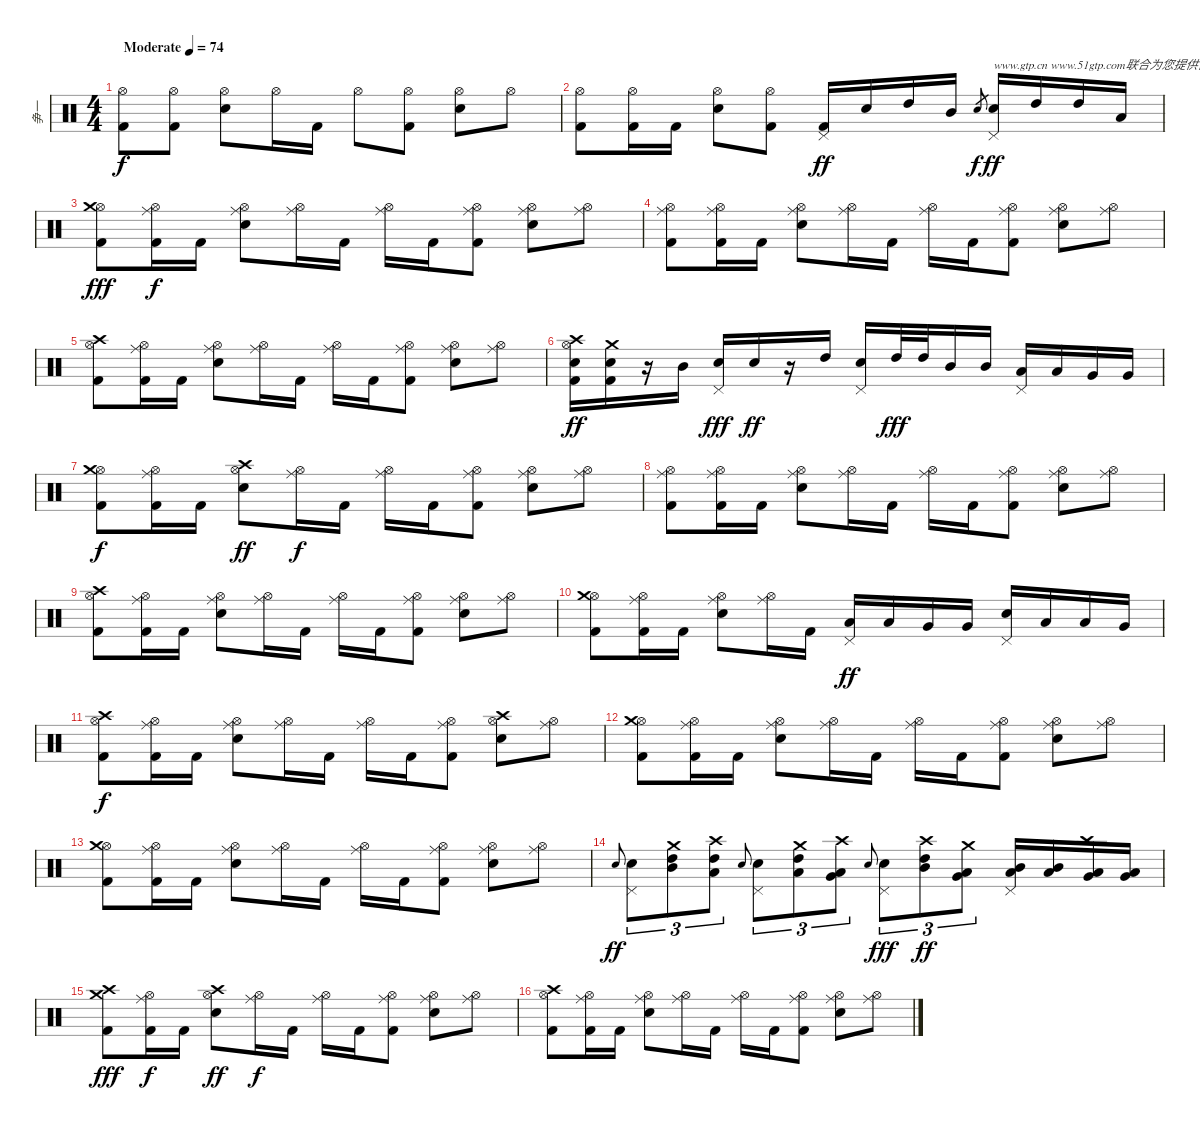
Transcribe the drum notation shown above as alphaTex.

\track ("争一" "争一") {instrument percussion}
\staff {score}
\articulation defaults
\ts (4 4)
\tempo (74 "Moderate")
\clef neutral
\ks c
("Hi-Hat (open)" "Kick (hit) 2").8{dy f} ("Hi-Hat (open)" "Kick (hit) 2").8 ("Hi-Hat (open)" "Snare (hit) 2").8 "Hi-Hat (open)".16 "Kick (hit) 2".16 "Hi-Hat (open)".8 ("Hi-Hat (open)" "Kick (hit) 2").8 ("Hi-Hat (open)" "Snare (hit) 2").8 "Hi-Hat (open)".8 |
("Hi-Hat (open)" "Kick (hit) 2").8 ("Hi-Hat (open)" "Kick (hit) 2").16 "Kick (hit) 2".16 ("Hi-Hat (open)" "Snare (hit) 2").8 ("Hi-Hat (open)" "Kick (hit) 2").8 ("Pedal Hi-Hat (hit)" "Kick (hit) 2").16{dy ff} "Snare (hit) 2".16 "High Tom (hit)".16 "Mid Tom (hit)".16 "Snare (hit) 2".8{gr dy f} ("Pedal Hi-Hat (hit)" "Snare (hit) 2").16{txt "www.gtp.cn www.51gtp.com联合为您提供优秀的GTP!" dy ff} "High Tom (hit)".16 "High Tom (hit)".16 "Low Tom (hit)".16 |
("Hi-Hat (open)" "Crash medium (hit)" "Kick (hit) 2").8{dy fff} ("Hi-Hat (open)" "Ride (middle)" "Kick (hit) 2").16{dy f} "Kick (hit) 2".16 ("Hi-Hat (open)" "Ride (middle)" "Snare (hit) 2").8 ("Hi-Hat (open)" "Ride (middle)").16 "Kick (hit) 2".16 ("Hi-Hat (open)" "Ride (middle)").16 "Kick (hit) 2".16 ("Hi-Hat (open)" "Ride (middle)" "Kick (hit) 2").8 ("Hi-Hat (open)" "Ride (middle)" "Snare (hit) 2").8 ("Hi-Hat (open)" "Ride (middle)").8 |
("Hi-Hat (open)" "Ride (middle)" "Kick (hit) 2").8 ("Hi-Hat (open)" "Ride (middle)" "Kick (hit) 2").16 "Kick (hit) 2".16 ("Hi-Hat (open)" "Ride (middle)" "Snare (hit) 2").8 ("Hi-Hat (open)" "Ride (middle)").16 "Kick (hit) 2".16 ("Hi-Hat (open)" "Ride (middle)").16 "Kick (hit) 2".16 ("Hi-Hat (open)" "Ride (middle)" "Kick (hit) 2").8 ("Hi-Hat (open)" "Ride (middle)" "Snare (hit) 2").8 ("Hi-Hat (open)" "Ride (middle)").8 |
("Hi-Hat (open)" "Crash high (hit)" "Kick (hit) 2").8 ("Hi-Hat (open)" "Ride (middle)" "Kick (hit) 2").16 "Kick (hit) 2".16 ("Hi-Hat (open)" "Ride (middle)" "Snare (hit) 2").8 ("Hi-Hat (open)" "Ride (middle)").16 "Kick (hit) 2".16 ("Hi-Hat (open)" "Ride (middle)").16 "Kick (hit) 2".16 ("Hi-Hat (open)" "Ride (middle)" "Kick (hit) 2").8 ("Hi-Hat (open)" "Ride (middle)" "Snare (hit) 2").8 ("Hi-Hat (open)" "Ride (middle)").8 |
("Hi-Hat (open)" "Crash high (hit)" "Snare (hit) 2" "Kick (hit) 2").16{dy ff} ("Crash medium (hit)" "Snare (hit) 2" "Kick (hit) 2").16 r.16 "Mid Tom (hit)".16 ("Pedal Hi-Hat (hit)" "Snare (hit) 2").16{dy fff} "Snare (hit) 2".16{dy ff} r.16 "High Tom (hit)".16 ("Pedal Hi-Hat (hit)" "Snare (hit) 2").16 "High Tom (hit)".32{dy fff} "High Tom (hit)".32 "Mid Tom (hit)".16 "Mid Tom (hit)".16 ("Pedal Hi-Hat (hit)" "Low Tom (hit)").16 "Low Tom (hit)".16 "Very Low Tom (hit)".16 "Very Low Tom (hit)".16 |
("Hi-Hat (open)" "Crash medium (hit)" "Kick (hit) 2").8{dy f} ("Hi-Hat (open)" "Ride (middle)" "Kick (hit) 2").16 "Kick (hit) 2".16 ("Hi-Hat (open)" "Crash high (hit)" "Snare (hit) 2").8{dy ff} ("Hi-Hat (open)" "Ride (middle)").16{dy f} "Kick (hit) 2".16 ("Hi-Hat (open)" "Ride (middle)").16 "Kick (hit) 2".16 ("Hi-Hat (open)" "Ride (middle)" "Kick (hit) 2").8 ("Hi-Hat (open)" "Ride (middle)" "Snare (hit) 2").8 ("Hi-Hat (open)" "Ride (middle)").8 |
("Hi-Hat (open)" "Ride (middle)" "Kick (hit) 2").8 ("Hi-Hat (open)" "Ride (middle)" "Kick (hit) 2").16 "Kick (hit) 2".16 ("Hi-Hat (open)" "Ride (middle)" "Snare (hit) 2").8 ("Hi-Hat (open)" "Ride (middle)").16 "Kick (hit) 2".16 ("Hi-Hat (open)" "Ride (middle)").16 "Kick (hit) 2".16 ("Hi-Hat (open)" "Ride (middle)" "Kick (hit) 2").8 ("Hi-Hat (open)" "Ride (middle)" "Snare (hit) 2").8 ("Hi-Hat (open)" "Ride (middle)").8 |
("Hi-Hat (open)" "Crash high (hit)" "Kick (hit) 2").8 ("Hi-Hat (open)" "Ride (middle)" "Kick (hit) 2").16 "Kick (hit) 2".16 ("Hi-Hat (open)" "Ride (middle)" "Snare (hit) 2").8 ("Hi-Hat (open)" "Ride (middle)").16 "Kick (hit) 2".16 ("Hi-Hat (open)" "Ride (middle)").16 "Kick (hit) 2".16 ("Hi-Hat (open)" "Ride (middle)" "Kick (hit) 2").8 ("Hi-Hat (open)" "Ride (middle)" "Snare (hit) 2").8 ("Hi-Hat (open)" "Ride (middle)").8 |
("Hi-Hat (open)" "Crash medium (hit)" "Kick (hit) 2").8 ("Hi-Hat (open)" "Ride (middle)" "Kick (hit) 2").16 "Kick (hit) 2".16 ("Hi-Hat (open)" "Ride (middle)" "Snare (hit) 2").8 ("Hi-Hat (open)" "Ride (middle)").16 "Kick (hit) 2".16 ("Pedal Hi-Hat (hit)" "Low Tom (hit)").16{dy ff} "Low Tom (hit)".16 "Very Low Tom (hit)".16 "Very Low Tom (hit)".16 ("Pedal Hi-Hat (hit)" "Snare (hit) 2").16 "Low Tom (hit)".16 "Low Tom (hit)".16 "Very Low Tom (hit)".16 |
("Hi-Hat (open)" "Crash high (hit)" "Kick (hit) 2").8{dy f} ("Hi-Hat (open)" "Ride (middle)" "Kick (hit) 2").16 "Kick (hit) 2".16 ("Hi-Hat (open)" "Ride (middle)" "Snare (hit) 2").8 ("Hi-Hat (open)" "Ride (middle)").16 "Kick (hit) 2".16 ("Hi-Hat (open)" "Ride (middle)").16 "Kick (hit) 2".16 ("Hi-Hat (open)" "Ride (middle)" "Kick (hit) 2").8 ("Hi-Hat (open)" "Crash high (hit)" "Snare (hit) 2").8 ("Hi-Hat (open)" "Ride (middle)").8 |
("Hi-Hat (open)" "Crash medium (hit)" "Kick (hit) 2").8 ("Hi-Hat (open)" "Ride (middle)" "Kick (hit) 2").16 "Kick (hit) 2".16 ("Hi-Hat (open)" "Ride (middle)" "Snare (hit) 2").8 ("Hi-Hat (open)" "Ride (middle)").16 "Kick (hit) 2".16 ("Hi-Hat (open)" "Ride (middle)").16 "Kick (hit) 2".16 ("Hi-Hat (open)" "Ride (middle)" "Kick (hit) 2").8 ("Hi-Hat (open)" "Ride (middle)" "Snare (hit) 2").8 ("Hi-Hat (open)" "Ride (middle)").8 |
("Hi-Hat (open)" "Crash medium (hit)" "Kick (hit) 2").8 ("Hi-Hat (open)" "Ride (middle)" "Kick (hit) 2").16 "Kick (hit) 2".16 ("Hi-Hat (open)" "Ride (middle)" "Snare (hit) 2").8 ("Hi-Hat (open)" "Ride (middle)").16 "Kick (hit) 2".16 ("Hi-Hat (open)" "Ride (middle)").16 "Kick (hit) 2".16 ("Hi-Hat (open)" "Ride (middle)" "Kick (hit) 2").8 ("Hi-Hat (open)" "Ride (middle)" "Snare (hit) 2").8 ("Hi-Hat (open)" "Ride (middle)").8 |
"Snare (hit) 2".8{gr onbeat dy ff} ("Pedal Hi-Hat (hit)" "Snare (hit) 2").8{tu (3 2)} ("Crash medium (hit)" "High Tom (hit)" "Mid Tom (hit)").8{tu (3 2)} ("Crash high (hit)" "Low Tom (hit)" "High Tom (hit)").8{tu (3 2)} "Snare (hit) 2".8{gr onbeat} ("Pedal Hi-Hat (hit)" "Snare (hit) 2").8{tu (3 2)} ("Crash medium (hit)" "Low Tom (hit)" "High Tom (hit)").8{tu (3 2)} ("Crash high (hit)" "Very Low Tom (hit)" "Low Tom (hit)").8{tu (3 2)} "Snare (hit) 2".8{gr onbeat} ("Pedal Hi-Hat (hit)" "Snare (hit) 2").8{tu (3 2) dy fff} ("Crash high (hit)" "Mid Tom (hit)" "High Tom (hit)").8{tu (3 2) dy ff} ("Crash medium (hit)" "Very Low Tom (hit)" "Low Tom (hit)").8{tu (3 2)} ("Pedal Hi-Hat (hit)" "Low Tom (hit)" "Mid Tom (hit)").16 ("Low Tom (hit)" "Mid Tom (hit)").16 ("Crash high (hit)" "Very Low Tom (hit)" "Low Tom (hit)").16 ("Very Low Tom (hit)" "Low Tom (hit)").16 |
("Crash high (hit)" "Crash medium (hit)" "Kick (hit) 2").8{dy fff} ("Hi-Hat (open)" "Ride (middle)" "Kick (hit) 2").16{dy f} "Kick (hit) 2".16 ("Hi-Hat (open)" "Crash high (hit)" "Snare (hit) 2").8{dy ff} ("Hi-Hat (open)" "Ride (middle)").16{dy f} "Kick (hit) 2".16 ("Hi-Hat (open)" "Ride (middle)").16 "Kick (hit) 2".16 ("Hi-Hat (open)" "Ride (middle)" "Kick (hit) 2").8 ("Hi-Hat (open)" "Ride (middle)" "Snare (hit) 2").8 ("Hi-Hat (open)" "Ride (middle)").8 |
("Hi-Hat (open)" "Crash high (hit)" "Kick (hit) 2").8 ("Hi-Hat (open)" "Ride (middle)" "Kick (hit) 2").16 "Kick (hit) 2".16 ("Hi-Hat (open)" "Ride (middle)" "Snare (hit) 2").8 ("Hi-Hat (open)" "Ride (middle)").16 "Kick (hit) 2".16 ("Hi-Hat (open)" "Ride (middle)").16 "Kick (hit) 2".16 ("Hi-Hat (open)" "Ride (middle)" "Kick (hit) 2").8 ("Hi-Hat (open)" "Ride (middle)" "Snare (hit) 2").8 ("Hi-Hat (open)" "Ride (middle)").8
